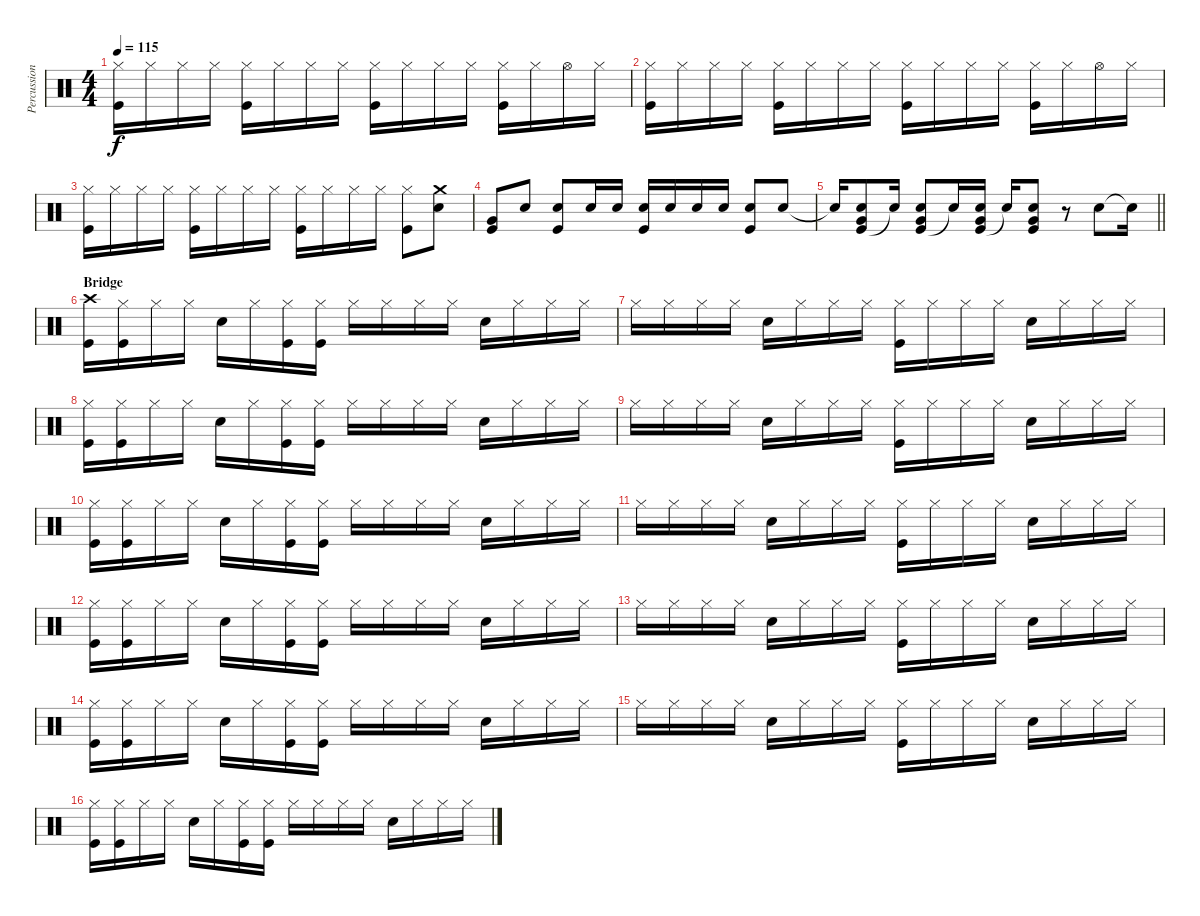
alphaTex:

\track ("Percussion" "Percussion") {instrument percussion}
\staff {score}
\articulation defaults
\ts (4 4)
\tempo 115
\clef neutral
\ks c
("Kick (hit)" "Hi-Hat (closed)").16{dy f} "Hi-Hat (closed)".16 "Hi-Hat (closed)".16 "Hi-Hat (closed)".16 ("Kick (hit)" "Hi-Hat (closed)").16 "Hi-Hat (closed)".16 "Hi-Hat (closed)".16 "Hi-Hat (closed)".16 ("Kick (hit)" "Hi-Hat (closed)").16 "Hi-Hat (closed)".16 "Hi-Hat (closed)".16 "Hi-Hat (closed)".16 ("Kick (hit)" "Hi-Hat (closed)").16 "Hi-Hat (closed)".16 "Hi-Hat (open)".16 "Hi-Hat (closed)".16 |
("Kick (hit)" "Hi-Hat (closed)").16 "Hi-Hat (closed)".16 "Hi-Hat (closed)".16 "Hi-Hat (closed)".16 ("Kick (hit)" "Hi-Hat (closed)").16 "Hi-Hat (closed)".16 "Hi-Hat (closed)".16 "Hi-Hat (closed)".16 ("Kick (hit)" "Hi-Hat (closed)").16 "Hi-Hat (closed)".16 "Hi-Hat (closed)".16 "Hi-Hat (closed)".16 ("Kick (hit)" "Hi-Hat (closed)").16 "Hi-Hat (closed)".16 "Hi-Hat (open)".16 "Hi-Hat (closed)".16 |
("Kick (hit)" "Hi-Hat (closed)").16 "Hi-Hat (closed)".16 "Hi-Hat (closed)".16 "Hi-Hat (closed)".16 ("Kick (hit)" "Hi-Hat (closed)").16 "Hi-Hat (closed)".16 "Hi-Hat (closed)".16 "Hi-Hat (closed)".16 ("Kick (hit)" "Hi-Hat (closed)").16 "Hi-Hat (closed)".16 "Hi-Hat (closed)".16 "Hi-Hat (closed)".16 ("Kick (hit)" "Hi-Hat (closed)").8 ("Crash medium (hit)" "Snare (hit) 2").8 |
("Kick (hit)" "Very Low Tom (hit)").8 "Snare (hit) 2".8 ("Kick (hit)" "Snare (hit) 2").8 "Snare (hit) 2".16 "Snare (hit) 2".16 ("Kick (hit)" "Snare (hit) 2").16 "Snare (hit) 2".16 "Snare (hit) 2".16 "Snare (hit) 2".16 ("Kick (hit)" "Snare (hit) 2").8 "Snare (hit) 2".8 |
\barLineRight lightlight "Snare (hit)"{t}.16
("Kick (hit)" "Very Low Tom (hit)" "Snare (hit) 2").8 "Snare (hit)"{t}.16 ("Kick (hit)" "Very Low Tom (hit)" "Snare (hit) 2").8 "Snare (hit)"{t}.16 ("Kick (hit)" "Very Low Tom (hit)" "Snare (hit) 2").16 "Snare (hit)"{t}.16 ("Kick (hit)" "Very Low Tom (hit)" "Snare (hit) 2").8 r.8 "Snare (hit) 2".8 "Snare (hit)"{t}.16 |
\section ("" "Bridge")
("Kick (hit)" "Crash high (hit)").16 ("Kick (hit)" "Hi-Hat (closed)").16 "Hi-Hat (closed)".16 "Hi-Hat (closed)".16 "Snare (hit) 2".16 "Hi-Hat (closed)".16 ("Kick (hit)" "Hi-Hat (closed)").16 ("Kick (hit)" "Hi-Hat (closed)").16 "Hi-Hat (closed)".16 "Hi-Hat (closed)".16 "Hi-Hat (closed)".16 "Hi-Hat (closed)".16 "Snare (hit) 2".16 "Hi-Hat (closed)".16 "Hi-Hat (closed)".16 "Hi-Hat (closed)".16 |
"Hi-Hat (closed)".16 "Hi-Hat (closed)".16 "Hi-Hat (closed)".16 "Hi-Hat (closed)".16 "Snare (hit) 2".16 "Hi-Hat (closed)".16 "Hi-Hat (closed)".16 "Hi-Hat (closed)".16 ("Kick (hit)" "Hi-Hat (closed)").16 "Hi-Hat (closed)".16 "Hi-Hat (closed)".16 "Hi-Hat (closed)".16 "Snare (hit) 2".16 "Hi-Hat (closed)".16 "Hi-Hat (closed)".16 "Hi-Hat (closed)".16 |
("Kick (hit)" "Hi-Hat (closed)").16 ("Kick (hit)" "Hi-Hat (closed)").16 "Hi-Hat (closed)".16 "Hi-Hat (closed)".16 "Snare (hit) 2".16 "Hi-Hat (closed)".16 ("Kick (hit)" "Hi-Hat (closed)").16 ("Kick (hit)" "Hi-Hat (closed)").16 "Hi-Hat (closed)".16 "Hi-Hat (closed)".16 "Hi-Hat (closed)".16 "Hi-Hat (closed)".16 "Snare (hit) 2".16 "Hi-Hat (closed)".16 "Hi-Hat (closed)".16 "Hi-Hat (closed)".16 |
"Hi-Hat (closed)".16 "Hi-Hat (closed)".16 "Hi-Hat (closed)".16 "Hi-Hat (closed)".16 "Snare (hit) 2".16 "Hi-Hat (closed)".16 "Hi-Hat (closed)".16 "Hi-Hat (closed)".16 ("Kick (hit)" "Hi-Hat (closed)").16 "Hi-Hat (closed)".16 "Hi-Hat (closed)".16 "Hi-Hat (closed)".16 "Snare (hit) 2".16 "Hi-Hat (closed)".16 "Hi-Hat (closed)".16 "Hi-Hat (closed)".16 |
("Kick (hit)" "Hi-Hat (closed)").16 ("Kick (hit)" "Hi-Hat (closed)").16 "Hi-Hat (closed)".16 "Hi-Hat (closed)".16 "Snare (hit) 2".16 "Hi-Hat (closed)".16 ("Kick (hit)" "Hi-Hat (closed)").16 ("Kick (hit)" "Hi-Hat (closed)").16 "Hi-Hat (closed)".16 "Hi-Hat (closed)".16 "Hi-Hat (closed)".16 "Hi-Hat (closed)".16 "Snare (hit) 2".16 "Hi-Hat (closed)".16 "Hi-Hat (closed)".16 "Hi-Hat (closed)".16 |
"Hi-Hat (closed)".16 "Hi-Hat (closed)".16 "Hi-Hat (closed)".16 "Hi-Hat (closed)".16 "Snare (hit) 2".16 "Hi-Hat (closed)".16 "Hi-Hat (closed)".16 "Hi-Hat (closed)".16 ("Kick (hit)" "Hi-Hat (closed)").16 "Hi-Hat (closed)".16 "Hi-Hat (closed)".16 "Hi-Hat (closed)".16 "Snare (hit) 2".16 "Hi-Hat (closed)".16 "Hi-Hat (closed)".16 "Hi-Hat (closed)".16 |
("Kick (hit)" "Hi-Hat (closed)").16 ("Kick (hit)" "Hi-Hat (closed)").16 "Hi-Hat (closed)".16 "Hi-Hat (closed)".16 "Snare (hit) 2".16 "Hi-Hat (closed)".16 ("Kick (hit)" "Hi-Hat (closed)").16 ("Kick (hit)" "Hi-Hat (closed)").16 "Hi-Hat (closed)".16 "Hi-Hat (closed)".16 "Hi-Hat (closed)".16 "Hi-Hat (closed)".16 "Snare (hit) 2".16 "Hi-Hat (closed)".16 "Hi-Hat (closed)".16 "Hi-Hat (closed)".16 |
"Hi-Hat (closed)".16 "Hi-Hat (closed)".16 "Hi-Hat (closed)".16 "Hi-Hat (closed)".16 "Snare (hit) 2".16 "Hi-Hat (closed)".16 "Hi-Hat (closed)".16 "Hi-Hat (closed)".16 ("Kick (hit)" "Hi-Hat (closed)").16 "Hi-Hat (closed)".16 "Hi-Hat (closed)".16 "Hi-Hat (closed)".16 "Snare (hit) 2".16 "Hi-Hat (closed)".16 "Hi-Hat (closed)".16 "Hi-Hat (closed)".16 |
("Kick (hit)" "Hi-Hat (closed)").16 ("Kick (hit)" "Hi-Hat (closed)").16 "Hi-Hat (closed)".16 "Hi-Hat (closed)".16 "Snare (hit) 2".16 "Hi-Hat (closed)".16 ("Kick (hit)" "Hi-Hat (closed)").16 ("Kick (hit)" "Hi-Hat (closed)").16 "Hi-Hat (closed)".16 "Hi-Hat (closed)".16 "Hi-Hat (closed)".16 "Hi-Hat (closed)".16 "Snare (hit) 2".16 "Hi-Hat (closed)".16 "Hi-Hat (closed)".16 "Hi-Hat (closed)".16 |
"Hi-Hat (closed)".16 "Hi-Hat (closed)".16 "Hi-Hat (closed)".16 "Hi-Hat (closed)".16 "Snare (hit) 2".16 "Hi-Hat (closed)".16 "Hi-Hat (closed)".16 "Hi-Hat (closed)".16 ("Kick (hit)" "Hi-Hat (closed)").16 "Hi-Hat (closed)".16 "Hi-Hat (closed)".16 "Hi-Hat (closed)".16 "Snare (hit) 2".16 "Hi-Hat (closed)".16 "Hi-Hat (closed)".16 "Hi-Hat (closed)".16 |
("Kick (hit)" "Hi-Hat (closed)").16 ("Kick (hit)" "Hi-Hat (closed)").16 "Hi-Hat (closed)".16 "Hi-Hat (closed)".16 "Snare (hit) 2".16 "Hi-Hat (closed)".16 ("Kick (hit)" "Hi-Hat (closed)").16 ("Kick (hit)" "Hi-Hat (closed)").16 "Hi-Hat (closed)".16 "Hi-Hat (closed)".16 "Hi-Hat (closed)".16 "Hi-Hat (closed)".16 "Snare (hit) 2".16 "Hi-Hat (closed)".16 "Hi-Hat (closed)".16 "Hi-Hat (closed)".16
